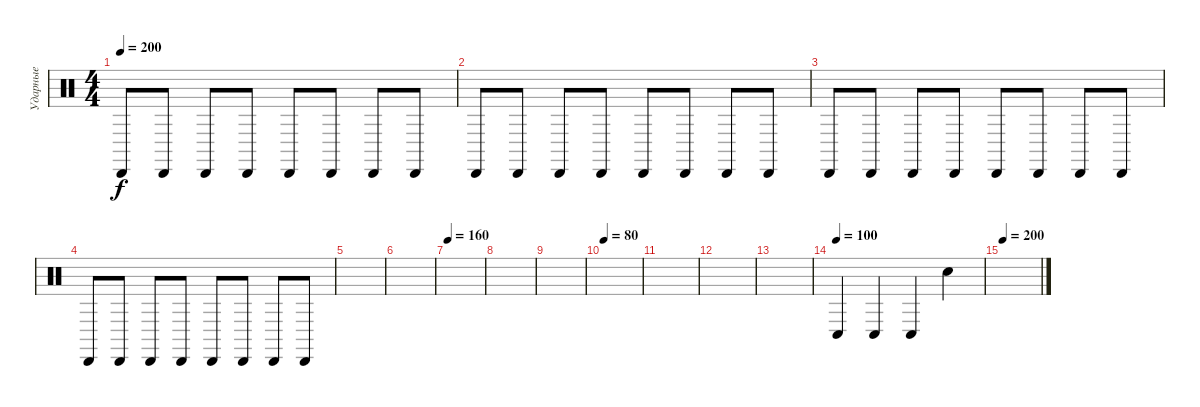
\track ("Ударные" "Ударные") {instrument percussion}
\staff {score}
\articulation defaults
\ts (4 4)
\tempo 200
\clef neutral
\ks c "Cabasa (hit)".8{dy f} "Cabasa (hit)".8 "Cabasa (hit)".8 "Cabasa (hit)".8 "Cabasa (hit)".8 "Cabasa (hit)".8 "Cabasa (hit)".8 "Cabasa (hit)".8
|
"Cabasa (hit)".8 "Cabasa (hit)".8 "Cabasa (hit)".8 "Cabasa (hit)".8 "Cabasa (hit)".8 "Cabasa (hit)".8 "Cabasa (hit)".8 "Cabasa (hit)".8 |
"Cabasa (hit)".8 "Cabasa (hit)".8 "Cabasa (hit)".8 "Cabasa (hit)".8 "Cabasa (hit)".8 "Cabasa (hit)".8 "Cabasa (hit)".8 "Cabasa (hit)".8 |
"Cabasa (hit)".8 "Cabasa (hit)".8 "Cabasa (hit)".8 "Cabasa (hit)".8 "Cabasa (hit)".8 "Cabasa (hit)".8 "Cabasa (hit)".8 "Cabasa (hit)".8 |
|
|
\tempo 160
|
|
|
\tempo 80
|
|
|
|
\tempo (100)
"Conga low (hit)".4 "Conga low (hit)".4 "Conga low (hit)".4 "Snare (hit)".4 |
\tempo 200
